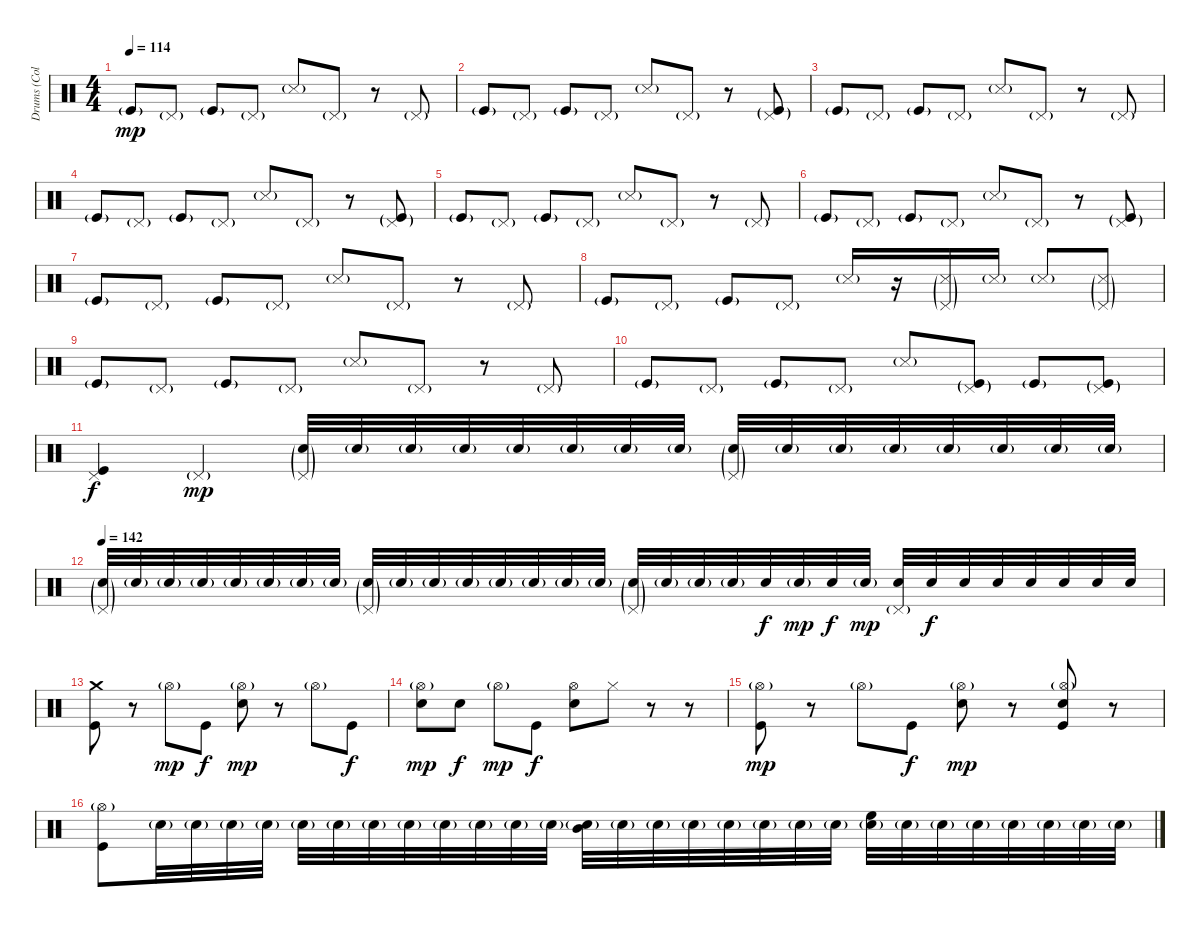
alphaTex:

\track ("Drums (Collins)" "Drums (Col") {instrument percussion}
\staff {score}
\articulation defaults
\ts (4 4)
\tempo 114
\clef neutral
\ks c "Kick (hit)"{g}.8{dy mp} "Pedal Hi-Hat (hit)"{g}.8 "Kick (hit)"{g}.8 "Pedal Hi-Hat (hit)"{g}.8 "Snare (side stick) 3"{g}.8 "Pedal Hi-Hat (hit)"{g}.8
r.8 "Pedal Hi-Hat (hit)"{g}.8 |
"Kick (hit)"{g}.8 "Pedal Hi-Hat (hit)"{g}.8 "Kick (hit)"{g}.8 "Pedal Hi-Hat (hit)"{g}.8 "Snare (side stick) 3"{g}.8 "Pedal Hi-Hat (hit)"{g}.8 r.8 ("Pedal Hi-Hat (hit)"{g} "Kick (hit)"{g}).8 |
"Kick (hit)"{g}.8 "Pedal Hi-Hat (hit)"{g}.8 "Kick (hit)"{g}.8 "Pedal Hi-Hat (hit)"{g}.8 "Snare (side stick) 3"{g}.8 "Pedal Hi-Hat (hit)"{g}.8 r.8 "Pedal Hi-Hat (hit)"{g}.8 |
"Kick (hit)"{g}.8 "Pedal Hi-Hat (hit)"{g}.8 "Kick (hit)"{g}.8 "Pedal Hi-Hat (hit)"{g}.8 "Snare (side stick) 3"{g}.8 "Pedal Hi-Hat (hit)"{g}.8 r.8 ("Pedal Hi-Hat (hit)"{g} "Kick (hit)"{g}).8 |
"Kick (hit)"{g}.8 "Pedal Hi-Hat (hit)"{g}.8 "Kick (hit)"{g}.8 "Pedal Hi-Hat (hit)"{g}.8 "Snare (side stick) 3"{g}.8 "Pedal Hi-Hat (hit)"{g}.8 r.8 "Pedal Hi-Hat (hit)"{g}.8 |
"Kick (hit)"{g}.8 "Pedal Hi-Hat (hit)"{g}.8 "Kick (hit)"{g}.8 "Pedal Hi-Hat (hit)"{g}.8 "Snare (side stick) 3"{g}.8 "Pedal Hi-Hat (hit)"{g}.8 r.8 ("Pedal Hi-Hat (hit)"{g} "Kick (hit)"{g}).8 |
"Kick (hit)"{g}.8 "Pedal Hi-Hat (hit)"{g}.8 "Kick (hit)"{g}.8 "Pedal Hi-Hat (hit)"{g}.8 "Snare (side stick) 3"{g}.8 "Pedal Hi-Hat (hit)"{g}.8 r.8 "Pedal Hi-Hat (hit)"{g}.8 |
"Kick (hit)"{g}.8 "Pedal Hi-Hat (hit)"{g}.8 "Kick (hit)"{g}.8 "Pedal Hi-Hat (hit)"{g}.8 "Snare (side stick) 3"{g}.16 r.16 ("Pedal Hi-Hat (hit)"{g} "Snare (side stick) 3"{g}).16 "Snare (side stick) 3"{g}.16 "Snare (side stick) 3"{g}.8 ("Pedal Hi-Hat (hit)"{g} "Snare (side stick) 3"{g}).8 |
"Kick (hit)"{g}.8 "Pedal Hi-Hat (hit)"{g}.8 "Kick (hit)"{g}.8 "Pedal Hi-Hat (hit)"{g}.8 "Snare (side stick) 3"{g}.8 "Pedal Hi-Hat (hit)"{g}.8 r.8 "Pedal Hi-Hat (hit)"{g}.8 |
"Kick (hit)"{g}.8 "Pedal Hi-Hat (hit)"{g}.8 "Kick (hit)"{g}.8 "Pedal Hi-Hat (hit)"{g}.8 "Snare (side stick) 3"{g}.8 ("Pedal Hi-Hat (hit)"{g} "Kick (hit)"{g}).8 "Kick (hit)"{g}.8 ("Pedal Hi-Hat (hit)"{g} "Kick (hit)"{g}).8 |
("Pedal Hi-Hat (hit)" "Kick (hit)").4{dy f} "Pedal Hi-Hat (hit)"{g}.4{dy mp} ("Pedal Hi-Hat (hit)"{g} "Snare (hit) 2"{g}).32 "Snare (hit) 2"{g}.32 "Snare (hit) 2"{g}.32 "Snare (hit) 2"{g}.32 "Snare (hit) 2"{g}.32 "Snare (hit) 2"{g}.32 "Snare (hit) 2"{g}.32 "Snare (hit) 2"{g}.32 ("Pedal Hi-Hat (hit)"{g} "Snare (hit) 2"{g}).32 "Snare (hit) 2"{g}.32 "Snare (hit) 2"{g}.32 "Snare (hit) 2"{g}.32 "Snare (hit) 2"{g}.32 "Snare (hit) 2"{g}.32 "Snare (hit) 2"{g}.32 "Snare (hit) 2"{g}.32 |
\tempo 142
("Pedal Hi-Hat (hit)"{g} "Snare (hit) 2"{g}).32 "Snare (hit) 2"{g}.32 "Snare (hit) 2"{g}.32 "Snare (hit) 2"{g}.32 "Snare (hit) 2"{g}.32 "Snare (hit) 2"{g}.32 "Snare (hit) 2"{g}.32 "Snare (hit) 2"{g}.32 ("Pedal Hi-Hat (hit)"{g} "Snare (hit) 2"{g}).32 "Snare (hit) 2"{g}.32 "Snare (hit) 2"{g}.32 "Snare (hit) 2"{g}.32 "Snare (hit) 2"{g}.32 "Snare (hit) 2"{g}.32 "Snare (hit) 2"{g}.32 "Snare (hit) 2"{g}.32 ("Pedal Hi-Hat (hit)"{g} "Snare (hit) 2"{g}).32 "Snare (hit) 2"{g}.32 "Snare (hit) 2"{g}.32 "Snare (hit) 2"{g}.32 "Snare (hit) 2".32{dy f} "Snare (hit) 2"{g}.32{dy mp} "Snare (hit) 2".32{dy f} "Snare (hit) 2"{g}.32{dy mp} ("Pedal Hi-Hat (hit)"{g} "Snare (hit) 2").32 "Snare (hit) 2".32{dy f} "Snare (hit) 2".32 "Snare (hit) 2".32 "Snare (hit) 2".32 "Snare (hit) 2".32 "Snare (hit) 2".32 "Snare (hit) 2".32 |
("Crash medium (hit)" "Kick (hit)").8 r.8 "Hi-Hat (open)"{g}.8{dy mp} "Kick (hit)".8{dy f} ("Hi-Hat (open)"{g} "Snare (hit) 2").8{dy mp} r.8 "Hi-Hat (open)"{g}.8 "Kick (hit)".8{dy f} |
("Hi-Hat (open)"{g} "Electric Snare (hit)").8{dy mp} "Electric Snare (hit)".8{dy f} "Hi-Hat (open)"{g}.8{dy mp} "Kick (hit)".8{dy f} ("Hi-Hat (open)" "Electric Snare (hit)").8 "Hi-Hat (closed)".8 r.8 r.8 |
("Hi-Hat (open)"{g} "Kick (hit)").8{dy mp} r.8 "Hi-Hat (open)"{g}.8 "Kick (hit)".8{dy f} ("Hi-Hat (open)"{g} "Electric Snare (hit)").8{dy mp} r.8 ("Hi-Hat (open)"{g} "Electric Snare (hit)" "Kick (hit)").8 r.8 |
("Hi-Hat (open)"{g} "Kick (hit)").8 "Snare (hit) 2"{g}.32 "Snare (hit) 2"{g}.32 "Snare (hit) 2"{g}.32 "Snare (hit) 2"{g}.32 "Snare (hit) 2"{g}.32 "Snare (hit) 2"{g}.32 "Snare (hit) 2"{g}.32 "Snare (hit) 2"{g}.32 "Snare (hit) 2"{g}.32 "Snare (hit) 2"{g}.32 "Snare (hit) 2"{g}.32 "Snare (hit) 2"{g}.32 ("Mid Tom (hit)" "Snare (hit) 2"{g}).32 "Snare (hit) 2"{g}.32 "Snare (hit) 2"{g}.32 "Snare (hit) 2"{g}.32 "Snare (hit) 2"{g}.32 "Snare (hit) 2"{g}.32 "Snare (hit) 2"{g}.32 "Snare (hit) 2"{g}.32 ("High Floor Tom (hit)" "Snare (hit) 2"{g}).32 "Snare (hit) 2"{g}.32 "Snare (hit) 2"{g}.32 "Snare (hit) 2"{g}.32 "Snare (hit) 2"{g}.32 "Snare (hit) 2"{g}.32 "Snare (hit) 2"{g}.32 "Snare (hit) 2"{g}.32
